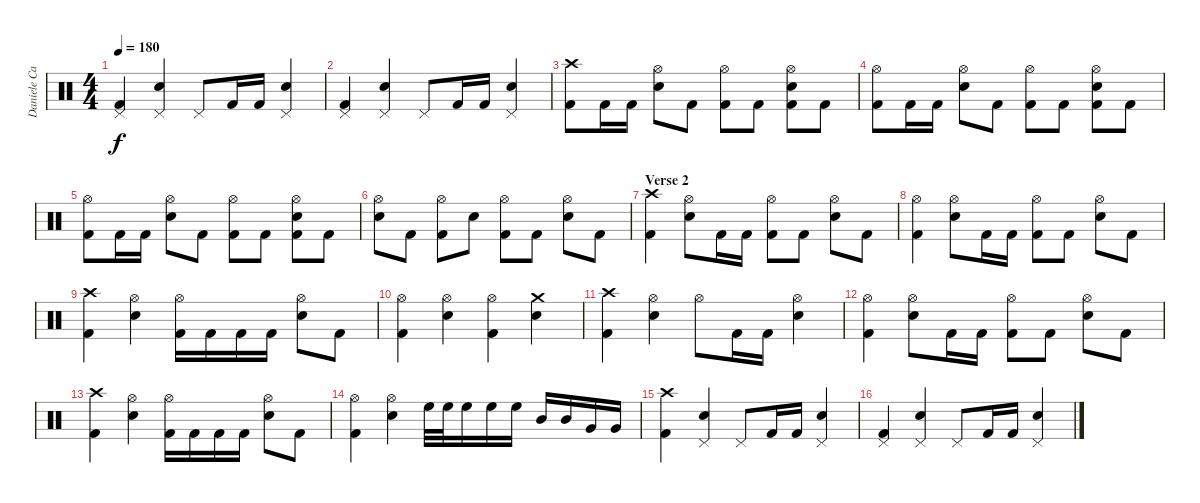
\track ("Daniele Carbonera " "Daniele Ca") {instrument percussion}
\staff {score}
\articulation defaults
\ts (4 4)
\tempo 180
\clef neutral
\ks c
("Pedal Hi-Hat (hit)" "Kick (hit) 2").4{dy f} ("Pedal Hi-Hat (hit)" "Electric Snare (hit)").4 "Pedal Hi-Hat (hit)".8 "Kick (hit) 2".16 "Kick (hit) 2".16 ("Pedal Hi-Hat (hit)" "Electric Snare (hit)").4 |
("Pedal Hi-Hat (hit)" "Kick (hit) 2").4 ("Pedal Hi-Hat (hit)" "Electric Snare (hit)").4 "Pedal Hi-Hat (hit)".8 "Kick (hit) 2".16 "Kick (hit) 2".16 ("Pedal Hi-Hat (hit)" "Electric Snare (hit)").4 |
("Crash high (hit)" "Kick (hit) 2").8 "Kick (hit) 2".16 "Kick (hit) 2".16 ("Hi-Hat (open)" "Electric Snare (hit)").8 "Kick (hit) 2".8 ("Hi-Hat (open)" "Kick (hit) 2").8 "Kick (hit) 2".8 ("Hi-Hat (open)" "Electric Snare (hit)" "Kick (hit) 2").8 "Kick (hit) 2".8 |
("Hi-Hat (open)" "Kick (hit) 2").8 "Kick (hit) 2".16 "Kick (hit) 2".16 ("Hi-Hat (open)" "Electric Snare (hit)").8 "Kick (hit) 2".8 ("Hi-Hat (open)" "Kick (hit) 2").8 "Kick (hit) 2".8 ("Hi-Hat (open)" "Electric Snare (hit)" "Kick (hit) 2").8 "Kick (hit) 2".8 |
("Hi-Hat (open)" "Kick (hit) 2").8 "Kick (hit) 2".16 "Kick (hit) 2".16 ("Hi-Hat (open)" "Electric Snare (hit)").8 "Kick (hit) 2".8 ("Hi-Hat (open)" "Kick (hit) 2").8 "Kick (hit) 2".8 ("Hi-Hat (open)" "Electric Snare (hit)" "Kick (hit) 2").8 "Kick (hit) 2".8 |
("Hi-Hat (open)" "Electric Snare (hit)").8 "Kick (hit) 2".8 ("Hi-Hat (open)" "Kick (hit) 2").8 "Electric Snare (hit)".8 ("Hi-Hat (open)" "Kick (hit) 2").8 "Kick (hit) 2".8 ("Hi-Hat (open)" "Electric Snare (hit)").8 "Kick (hit) 2".8 |
\section ("" "Verse 2")
("Crash high (hit)" "Kick (hit) 2").4 ("Hi-Hat (open)" "Electric Snare (hit)").8 "Kick (hit) 2".16 "Kick (hit) 2".16 ("Hi-Hat (open)" "Kick (hit) 2").8 "Kick (hit) 2".8 ("Hi-Hat (open)" "Electric Snare (hit)").8 "Kick (hit) 2".8 |
("Hi-Hat (open)" "Kick (hit) 2").4 ("Hi-Hat (open)" "Electric Snare (hit)").8 "Kick (hit) 2".16 "Kick (hit) 2".16 ("Hi-Hat (open)" "Kick (hit) 2").8 "Kick (hit) 2".8 ("Hi-Hat (open)" "Electric Snare (hit)").8 "Kick (hit) 2".8 |
("Crash high (hit)" "Kick (hit) 2").4 ("Hi-Hat (open)" "Electric Snare (hit)").4 ("Hi-Hat (open)" "Kick (hit) 2").16 "Kick (hit) 2".16 "Kick (hit) 2".16 "Kick (hit) 2".16 ("Hi-Hat (open)" "Electric Snare (hit)").8 "Kick (hit) 2".8 |
("Hi-Hat (open)" "Kick (hit) 2").4 ("Hi-Hat (open)" "Electric Snare (hit)").4 ("Hi-Hat (open)" "Kick (hit) 2").4 ("Crash medium (hit)" "Electric Snare (hit)").4 |
("Crash high (hit)" "Kick (hit) 2").4 ("Hi-Hat (open)" "Electric Snare (hit)").4 "Hi-Hat (open)".8 "Kick (hit) 2".16 "Kick (hit) 2".16 ("Hi-Hat (open)" "Electric Snare (hit)").4 |
("Hi-Hat (open)" "Kick (hit) 2").4 ("Hi-Hat (open)" "Electric Snare (hit)").8 "Kick (hit) 2".16 "Kick (hit) 2".16 ("Hi-Hat (open)" "Kick (hit) 2").8 "Kick (hit) 2".8 ("Hi-Hat (open)" "Electric Snare (hit)").8 "Kick (hit) 2".8 |
("Crash high (hit)" "Kick (hit) 2").4 ("Hi-Hat (open)" "Electric Snare (hit)").4 ("Hi-Hat (open)" "Kick (hit) 2").16 "Kick (hit) 2".16 "Kick (hit) 2".16 "Kick (hit) 2".16 ("Hi-Hat (open)" "Electric Snare (hit)").8 "Kick (hit) 2".8 |
("Hi-Hat (open)" "Kick (hit) 2").4 ("Hi-Hat (open)" "Electric Snare (hit)").4 "High Floor Tom (hit)".32 "High Floor Tom (hit)".32 "High Floor Tom (hit)".16 "High Floor Tom (hit)".16 "High Floor Tom (hit)".16 "Mid Tom (hit)".16 "Mid Tom (hit)".16 "Very Low Tom (hit)".16 "Very Low Tom (hit)".16 |
("Crash high (hit)" "Kick (hit) 2").4 ("Pedal Hi-Hat (hit)" "Electric Snare (hit)").4 "Pedal Hi-Hat (hit)".8 "Kick (hit) 2".16 "Kick (hit) 2".16 ("Pedal Hi-Hat (hit)" "Electric Snare (hit)").4 |
("Pedal Hi-Hat (hit)" "Kick (hit) 2").4 ("Pedal Hi-Hat (hit)" "Electric Snare (hit)").4 "Pedal Hi-Hat (hit)".8 "Kick (hit) 2".16 "Kick (hit) 2".16 ("Pedal Hi-Hat (hit)" "Electric Snare (hit)").4
